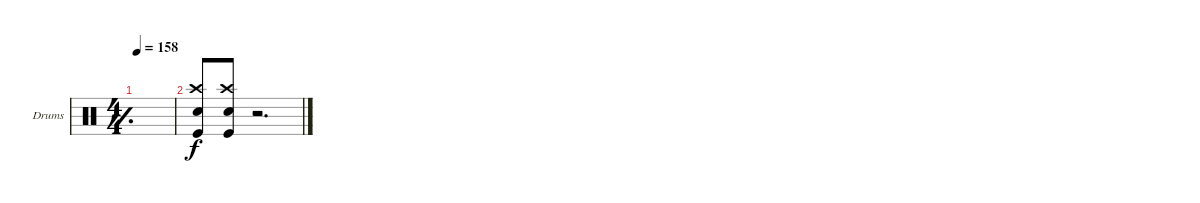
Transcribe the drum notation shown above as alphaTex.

\defaultSystemsLayout 4
\bracketExtendMode groupsimilarinstruments
\firstSystemTrackNameOrientation horizontal
\otherSystemsTrackNameOrientation horizontal
\track ("Drums" "Drums") {instrument percussion}
\staff {score}
\articulation defaults
\ts (4 4)
\tempo 158
\clef neutral
\simile simple
\ks c
|
("Snare (hit) 2" "Crash high (hit)" "Kick (hit)").8 ("Snare (hit) 2" "Crash high (hit)" "Kick (hit)").8 r.2{d}
